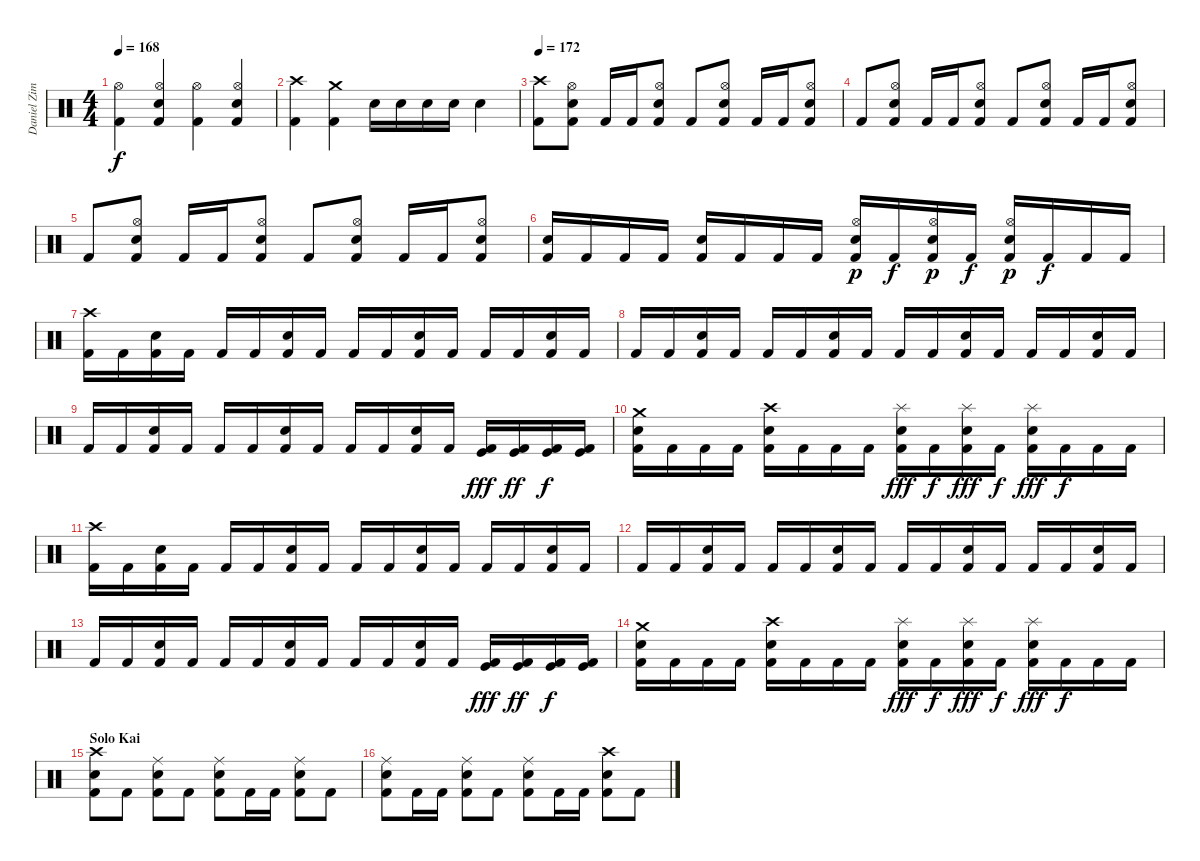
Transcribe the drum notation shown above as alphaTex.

\track ("Daniel Zimmermann - Drums" "Daniel Zim") {instrument percussion}
\staff {score}
\articulation defaults
\ts (4 4)
\tempo 168
\clef neutral
\ks c
("Kick (hit) 2" "Hi-Hat (open)").4{dy f} ("Kick (hit) 2" "Electric Snare (hit)" "Hi-Hat (open)").4 ("Kick (hit) 2" "Hi-Hat (open)").4 ("Kick (hit) 2" "Electric Snare (hit)" "Hi-Hat (open)").4 |
("Kick (hit) 2" "Crash high (hit)").4 ("Kick (hit) 2" "Crash medium (hit)").4 "Electric Snare (hit)".16 "Electric Snare (hit)".16 "Electric Snare (hit)".16 "Electric Snare (hit)".16 "Electric Snare (hit)".4 |
\tempo 172
("Kick (hit) 2" "Crash high (hit)").8 ("Kick (hit) 2" "Electric Snare (hit)" "Hi-Hat (open)").8 "Kick (hit) 2".16 "Kick (hit) 2".16 ("Kick (hit) 2" "Electric Snare (hit)" "Hi-Hat (open)").8 "Kick (hit) 2".8 ("Kick (hit) 2" "Electric Snare (hit)" "Hi-Hat (open)").8 "Kick (hit) 2".16 "Kick (hit) 2".16 ("Kick (hit) 2" "Electric Snare (hit)" "Hi-Hat (open)").8 |
"Kick (hit) 2".8 ("Kick (hit) 2" "Electric Snare (hit)" "Hi-Hat (open)").8 "Kick (hit) 2".16 "Kick (hit) 2".16 ("Kick (hit) 2" "Electric Snare (hit)" "Hi-Hat (open)").8 "Kick (hit) 2".8 ("Kick (hit) 2" "Electric Snare (hit)" "Hi-Hat (open)").8 "Kick (hit) 2".16 "Kick (hit) 2".16 ("Kick (hit) 2" "Electric Snare (hit)" "Hi-Hat (open)").8 |
"Kick (hit) 2".8 ("Kick (hit) 2" "Electric Snare (hit)" "Hi-Hat (open)").8 "Kick (hit) 2".16 "Kick (hit) 2".16 ("Kick (hit) 2" "Electric Snare (hit)" "Hi-Hat (open)").8 "Kick (hit) 2".8 ("Kick (hit) 2" "Electric Snare (hit)" "Hi-Hat (open)").8 "Kick (hit) 2".16 "Kick (hit) 2".16 ("Kick (hit) 2" "Electric Snare (hit)" "Hi-Hat (open)").8 |
("Kick (hit) 2" "Electric Snare (hit)").16 "Kick (hit) 2".16 "Kick (hit) 2".16 "Kick (hit) 2".16 ("Kick (hit) 2" "Electric Snare (hit)").16 "Kick (hit) 2".16 "Kick (hit) 2".16 "Kick (hit) 2".16 ("Kick (hit) 2" "Electric Snare (hit)" "Hi-Hat (open)").16{dy p} "Kick (hit) 2".16{dy f} ("Kick (hit) 2" "Electric Snare (hit)" "Hi-Hat (open)").16{dy p} "Kick (hit) 2".16{dy f} ("Kick (hit) 2" "Electric Snare (hit)" "Hi-Hat (open)").16{dy p} "Kick (hit) 2".16{dy f} "Kick (hit) 2".16 "Kick (hit) 2".16 |
("Kick (hit) 2" "Crash high (hit)").16 "Kick (hit) 2".16 ("Kick (hit) 2" "Electric Snare (hit)").16 "Kick (hit) 2".16 "Kick (hit) 2".16 "Kick (hit) 2".16 ("Kick (hit) 2" "Electric Snare (hit)").16 "Kick (hit) 2".16 "Kick (hit) 2".16 "Kick (hit) 2".16 ("Kick (hit) 2" "Electric Snare (hit)").16 "Kick (hit) 2".16 "Kick (hit) 2".16 "Kick (hit) 2".16 ("Kick (hit) 2" "Electric Snare (hit)").16 "Kick (hit) 2".16 |
"Kick (hit) 2".16 "Kick (hit) 2".16 ("Kick (hit) 2" "Electric Snare (hit)").16 "Kick (hit) 2".16 "Kick (hit) 2".16 "Kick (hit) 2".16 ("Kick (hit) 2" "Electric Snare (hit)").16 "Kick (hit) 2".16 "Kick (hit) 2".16 "Kick (hit) 2".16 ("Kick (hit) 2" "Electric Snare (hit)").16 "Kick (hit) 2".16 "Kick (hit) 2".16 "Kick (hit) 2".16 ("Kick (hit) 2" "Electric Snare (hit)").16 "Kick (hit) 2".16 |
"Kick (hit) 2".16 "Kick (hit) 2".16 ("Kick (hit) 2" "Electric Snare (hit)").16 "Kick (hit) 2".16 "Kick (hit) 2".16 "Kick (hit) 2".16 ("Kick (hit) 2" "Electric Snare (hit)").16 "Kick (hit) 2".16 "Kick (hit) 2".16 "Kick (hit) 2".16 ("Kick (hit) 2" "Electric Snare (hit)").16 "Kick (hit) 2".16 ("Kick (hit) 2" "Kick (hit)").16{dy fff} ("Kick (hit) 2" "Kick (hit)").16{dy ff} ("Kick (hit) 2" "Kick (hit)").16{dy f} ("Kick (hit) 2" "Kick (hit)").16 |
("Kick (hit) 2" "Electric Snare (hit)" "Crash medium (hit)").16 "Kick (hit) 2".16 "Kick (hit) 2".16 "Kick (hit) 2".16 ("Kick (hit) 2" "Electric Snare (hit)" "Crash high (hit)").16 "Kick (hit) 2".16 "Kick (hit) 2".16 "Kick (hit) 2".16 ("Kick (hit) 2" "Electric Snare (hit)" "Splash (hit)").16{dy fff} "Kick (hit) 2".16{dy f} ("Kick (hit) 2" "Electric Snare (hit)" "Splash (hit)").16{dy fff} "Kick (hit) 2".16{dy f} ("Kick (hit) 2" "Electric Snare (hit)" "Splash (hit)").16{dy fff} "Kick (hit) 2".16{dy f} "Kick (hit) 2".16 "Kick (hit) 2".16 |
("Kick (hit) 2" "Crash high (hit)").16 "Kick (hit) 2".16 ("Kick (hit) 2" "Electric Snare (hit)").16 "Kick (hit) 2".16 "Kick (hit) 2".16 "Kick (hit) 2".16 ("Kick (hit) 2" "Electric Snare (hit)").16 "Kick (hit) 2".16 "Kick (hit) 2".16 "Kick (hit) 2".16 ("Kick (hit) 2" "Electric Snare (hit)").16 "Kick (hit) 2".16 "Kick (hit) 2".16 "Kick (hit) 2".16 ("Kick (hit) 2" "Electric Snare (hit)").16 "Kick (hit) 2".16 |
"Kick (hit) 2".16 "Kick (hit) 2".16 ("Kick (hit) 2" "Electric Snare (hit)").16 "Kick (hit) 2".16 "Kick (hit) 2".16 "Kick (hit) 2".16 ("Kick (hit) 2" "Electric Snare (hit)").16 "Kick (hit) 2".16 "Kick (hit) 2".16 "Kick (hit) 2".16 ("Kick (hit) 2" "Electric Snare (hit)").16 "Kick (hit) 2".16 "Kick (hit) 2".16 "Kick (hit) 2".16 ("Kick (hit) 2" "Electric Snare (hit)").16 "Kick (hit) 2".16 |
"Kick (hit) 2".16 "Kick (hit) 2".16 ("Kick (hit) 2" "Electric Snare (hit)").16 "Kick (hit) 2".16 "Kick (hit) 2".16 "Kick (hit) 2".16 ("Kick (hit) 2" "Electric Snare (hit)").16 "Kick (hit) 2".16 "Kick (hit) 2".16 "Kick (hit) 2".16 ("Kick (hit) 2" "Electric Snare (hit)").16 "Kick (hit) 2".16 ("Kick (hit) 2" "Kick (hit)").16{dy fff} ("Kick (hit) 2" "Kick (hit)").16{dy ff} ("Kick (hit) 2" "Kick (hit)").16{dy f} ("Kick (hit) 2" "Kick (hit)").16 |
("Kick (hit) 2" "Electric Snare (hit)" "Crash medium (hit)").16 "Kick (hit) 2".16 "Kick (hit) 2".16 "Kick (hit) 2".16 ("Kick (hit) 2" "Electric Snare (hit)" "Crash high (hit)").16 "Kick (hit) 2".16 "Kick (hit) 2".16 "Kick (hit) 2".16 ("Kick (hit) 2" "Electric Snare (hit)" "Splash (hit)").16{dy fff} "Kick (hit) 2".16{dy f} ("Kick (hit) 2" "Electric Snare (hit)" "Splash (hit)").16{dy fff} "Kick (hit) 2".16{dy f} ("Kick (hit) 2" "Electric Snare (hit)" "Splash (hit)").16{dy fff} "Kick (hit) 2".16{dy f} "Kick (hit) 2".16 "Kick (hit) 2".16 |
\section ("" "Solo Kai")
("Kick (hit) 2" "Electric Snare (hit)" "Crash high (hit)").8 "Kick (hit) 2".8 ("Kick (hit) 2" "Electric Snare (hit)" "Ride (middle)").8 "Kick (hit) 2".8 ("Kick (hit) 2" "Electric Snare (hit)" "Ride (middle)").8 "Kick (hit) 2".16 "Kick (hit) 2".16 ("Kick (hit) 2" "Electric Snare (hit)" "Ride (middle)").8 "Kick (hit) 2".8 |
("Kick (hit) 2" "Electric Snare (hit)" "Ride (middle)").8 "Kick (hit) 2".16 "Kick (hit) 2".16 ("Kick (hit) 2" "Electric Snare (hit)" "Ride (middle)").8 "Kick (hit) 2".8 ("Kick (hit) 2" "Electric Snare (hit)" "Ride (middle)").8 "Kick (hit) 2".16 "Kick (hit) 2".16 ("Kick (hit) 2" "Electric Snare (hit)" "Crash high (hit)").8 "Kick (hit) 2".8
